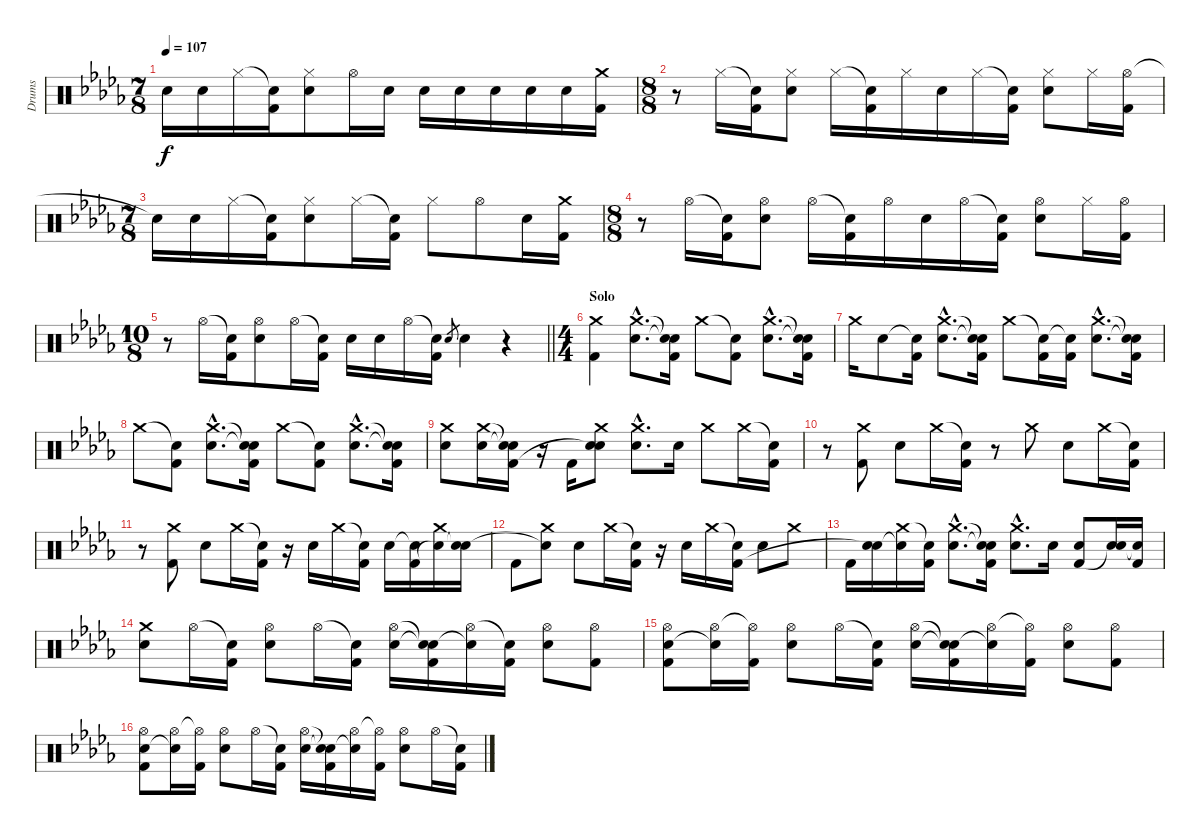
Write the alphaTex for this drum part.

\track ("Drums" "Drums") {instrument percussion}
\staff {score}
\articulation defaults
\ts (7 8)
\tempo 107
\clef neutral
\ks bbminor "Snare (hit)"{t}.16{dy f} "Electric Snare (hit)".16 "Hi-Hat (closed)".16
("Snare (hit)"{t} "Kick (hit) 2").16 ("Hi-Hat (closed)" "Electric Snare (hit)").8 "Hi-Hat (open)".16 "Electric Snare (hit)".16 "Electric Snare (hit)".16 "Electric Snare (hit)".16 "Electric Snare (hit)".16 "Electric Snare (hit)".16 "Electric Snare (hit)".16 ("Crash medium (hit)" "Kick (hit) 2").16 |
\ts (8 8)
r.8 "Hi-Hat (closed)".16 ("Snare (hit)"{t} "Kick (hit) 2").16 ("Hi-Hat (closed)" "Electric Snare (hit)").8 "Hi-Hat (closed)".16 ("Snare (hit)"{t} "Kick (hit) 2").16 "Hi-Hat (closed)".16 "Electric Snare (hit)".16 "Hi-Hat (closed)".16 ("Snare (hit)"{t} "Kick (hit) 2").16 ("Hi-Hat (closed)" "Electric Snare (hit)").8 "Hi-Hat (closed)".16 ("Hi-Hat (open)" "Kick (hit) 2").16 |
\ts (7 8)
"Snare (hit)"{t}.16 "Electric Snare (hit)".16 "Hi-Hat (closed)".16 ("Snare (hit)"{t} "Kick (hit) 2").16 ("Hi-Hat (closed)" "Electric Snare (hit)").8 "Hi-Hat (closed)".16 ("Snare (hit)"{t} "Kick (hit) 2").16 "Hi-Hat (closed)".8 "Hi-Hat (open)".8 "Electric Snare (hit)".16 ("Crash medium (hit)" "Kick (hit) 2").16 |
\ts (8 8)
r.8 "Hi-Hat (open)".16 ("Snare (hit)"{t} "Kick (hit) 2").16 ("Hi-Hat (open)" "Electric Snare (hit)").8 "Hi-Hat (open)".16 ("Snare (hit)"{t} "Kick (hit) 2").16 "Hi-Hat (open)".16 "Electric Snare (hit)".16 "Hi-Hat (open)".16 ("Snare (hit)"{t} "Kick (hit) 2").16 ("Hi-Hat (open)" "Electric Snare (hit)").8 "Hi-Hat (closed)".16 ("Hi-Hat (open)" "Kick (hit) 2").16 |
\ts (10 8)
\barLineRight lightlight
r.8 "Hi-Hat (open)".16 ("Snare (hit)"{t} "Kick (hit) 2").16 ("Hi-Hat (open)" "Electric Snare (hit)").8 "Hi-Hat (open)".16 ("Snare (hit)"{t} "Kick (hit) 2").16 "Electric Snare (hit)".16 "Electric Snare (hit)".16 "Hi-Hat (open)".16 ("Snare (hit)"{t} "Kick (hit) 2").16 "Electric Snare (hit)".8{gr} "Electric Snare (hit)".4 r.4 |
\ts (4 4)
\section ("" "Solo")
("Crash medium (hit)" "Kick (hit) 2").4 ("Crash medium (hit)"{hac} "Electric Snare (hit)"{hac}).8{d} ("Snare (hit)"{t} "Snare (hit)"{t} "Kick (hit) 2").16 "Crash medium (hit)".8 ("Snare (hit)"{t} "Kick (hit) 2").8 ("Crash medium (hit)"{hac} "Electric Snare (hit)"{hac}).8{d} ("Snare (hit)"{t} "Snare (hit)"{t} "Kick (hit) 2").16 |
"Crash medium (hit)".16 "Electric Snare (hit)".8 ("Snare (hit)"{t} "Kick (hit) 2").16 ("Crash medium (hit)"{hac} "Electric Snare (hit)"{hac}).8{d} ("Snare (hit)"{t} "Snare (hit)"{t} "Kick (hit) 2").16 "Crash medium (hit)".8 ("Snare (hit)"{t} "Kick (hit) 2").16 ("Snare (hit)"{t} "Kick (hit) 2").16 ("Crash medium (hit)"{hac} "Electric Snare (hit)"{hac}).8{d} ("Snare (hit)"{t} "Snare (hit)"{t} "Kick (hit) 2").16 |
"Crash medium (hit)".8 ("Snare (hit)"{t} "Kick (hit) 2").8 ("Crash medium (hit)"{hac} "Electric Snare (hit)"{hac}).8{d} ("Snare (hit)"{t} "Snare (hit)"{t} "Kick (hit) 2").16 "Crash medium (hit)".8 ("Snare (hit)"{t} "Kick (hit) 2").8 ("Crash medium (hit)"{hac} "Electric Snare (hit)"{hac}).8{d} ("Snare (hit)"{t} "Snare (hit)"{t} "Kick (hit) 2").16 |
("Crash medium (hit)" "Electric Snare (hit)").8 ("Crash medium (hit)" "Electric Snare (hit)").16 ("Snare (hit)"{t} "Snare (hit)"{t} "Kick (hit) 2").16 r.16 "Kick (hit) 2".16 ("Crash medium (hit)" "Electric Snare (hit)" "Snare (hit)"{t}).8 ("Crash medium (hit)"{hac} "Electric Snare (hit)"{hac}).8{d} "Electric Snare (hit)".16 "Crash medium (hit)".8 "Crash medium (hit)".16 ("Snare (hit)"{t} "Kick (hit) 2").16 |
r.8 ("Crash medium (hit)" "Kick (hit) 2").8 "Electric Snare (hit)".8 "Crash medium (hit)".16 ("Snare (hit)"{t} "Kick (hit) 2").16 r.8 "Crash medium (hit)".8 "Electric Snare (hit)".8 "Crash medium (hit)".16 ("Snare (hit)"{t} "Kick (hit) 2").16 |
r.8 ("Crash medium (hit)" "Kick (hit) 2").8 "Electric Snare (hit)".8 "Crash medium (hit)".16 ("Snare (hit)"{t} "Kick (hit) 2").16 r.16 "Electric Snare (hit)".16 "Crash medium (hit)".16 ("Snare (hit)"{t} "Kick (hit) 2").16 "Electric Snare (hit)".16 ("Snare (hit)"{t} "Kick (hit) 2").16 ("Crash medium (hit)" "Snare (hit)"{t}).16 ("Electric Snare (hit)" "Snare (hit)"{t}).16 |
"Kick (hit) 2".8 ("Crash medium (hit)" "Snare (hit)"{t}).8 "Electric Snare (hit)".8 "Crash medium (hit)".16 ("Snare (hit)"{t} "Kick (hit) 2").16 r.16 "Electric Snare (hit)".16 "Crash medium (hit)".16 ("Snare (hit)"{t} "Kick (hit) 2").16 "Electric Snare (hit)".8 "Crash medium (hit)".8 |
"Kick (hit) 2".16 ("Electric Snare (hit)" "Snare (hit)"{t}).16 ("Crash medium (hit)" "Snare (hit)"{t}).16 ("Snare (hit)"{t} "Kick (hit) 2").16 ("Crash medium (hit)"{hac} "Electric Snare (hit)"{hac}).8{d} ("Snare (hit)"{t} "Snare (hit)"{t} "Kick (hit) 2").16 ("Crash medium (hit)"{hac} "Electric Snare (hit)"{hac}).8{d} "Electric Snare (hit)".16 ("Electric Snare (hit)" "Kick (hit) 2").8 ("Electric Snare (hit)" "Snare (hit)"{t}).16 ("Snare (hit)"{t} "Kick (hit) 2").16 |
("Crash medium (hit)" "Electric Snare (hit)").8 "Hi-Hat (open)".16 ("Snare (hit)"{t} "Kick (hit) 2").16 ("Hi-Hat (open)" "Electric Snare (hit)").8 "Hi-Hat (open)".16 ("Snare (hit)"{t} "Kick (hit) 2").16 ("Hi-Hat (open)" "Electric Snare (hit)").16 ("Snare (hit)"{t} "Snare (hit)"{t} "Kick (hit) 2").16 ("Hi-Hat (open)" "Snare (hit)"{t}).16 ("Snare (hit)"{t} "Kick (hit) 2").16 ("Hi-Hat (open)" "Electric Snare (hit)").8 ("Hi-Hat (open)" "Kick (hit) 2").8 |
("Hi-Hat (open)" "Electric Snare (hit)" "Kick (hit) 2").8 ("Hi-Hat (open)" "Snare (hit)"{t}).16 ("Hi-Hat (open)"{t} "Kick (hit) 2").16 ("Hi-Hat (open)" "Electric Snare (hit)").8 "Hi-Hat (open)".16 ("Snare (hit)"{t} "Kick (hit) 2").16 ("Hi-Hat (open)" "Electric Snare (hit)").16 ("Snare (hit)"{t} "Snare (hit)"{t} "Kick (hit) 2").16 ("Hi-Hat (open)" "Snare (hit)"{t}).16 ("Hi-Hat (open)"{t} "Kick (hit) 2").16 ("Hi-Hat (open)" "Electric Snare (hit)").8 ("Hi-Hat (open)" "Kick (hit) 2").8 |
("Hi-Hat (open)" "Electric Snare (hit)" "Kick (hit) 2").8 ("Hi-Hat (open)" "Snare (hit)"{t}).16 ("Hi-Hat (open)"{t} "Kick (hit) 2").16 ("Hi-Hat (open)" "Electric Snare (hit)").8 "Hi-Hat (open)".16 ("Snare (hit)"{t} "Kick (hit) 2").16 ("Hi-Hat (open)" "Electric Snare (hit)").16 ("Snare (hit)"{t} "Snare (hit)"{t} "Kick (hit) 2").16 ("Hi-Hat (open)" "Snare (hit)"{t}).16 ("Hi-Hat (open)"{t} "Kick (hit) 2").16 ("Hi-Hat (open)" "Electric Snare (hit)").8 "Hi-Hat (open)".16 ("Snare (hit)"{t} "Kick (hit) 2").16
